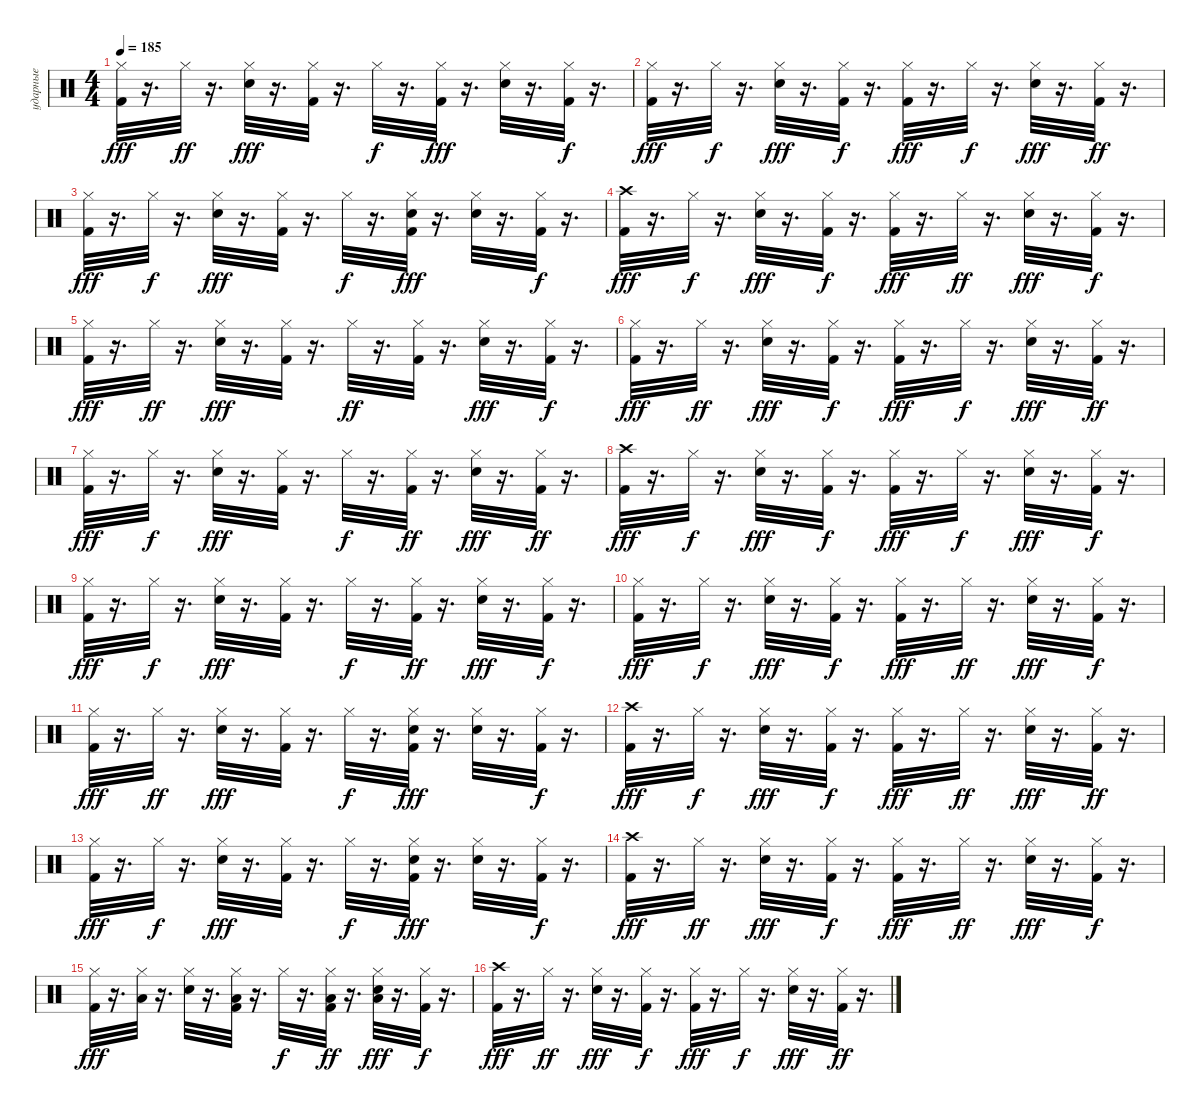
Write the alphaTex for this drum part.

\track ("ударные" "ударные") {instrument percussion}
\staff {score}
\articulation defaults
\ts (4 4)
\tempo 185
\clef neutral
\ks c
("Hi-Hat (closed)" "Kick (hit) 2").32{dy fff} r.16{d} "Hi-Hat (closed)".32{dy ff} r.16{d} ("Hi-Hat (closed)" "Electric Snare (hit)").32{dy fff} r.16{d} ("Hi-Hat (closed)" "Kick (hit) 2").32 r.16{d} "Hi-Hat (closed)".32{dy f} r.16{d} ("Kick (hit) 2" "Hi-Hat (closed)").32{dy fff} r.16{d} ("Hi-Hat (closed)" "Electric Snare (hit)").32 r.16{d} ("Hi-Hat (closed)" "Kick (hit) 2").32{dy f} r.16{d} |
("Hi-Hat (closed)" "Kick (hit) 2").32{dy fff} r.16{d} "Hi-Hat (closed)".32{dy f} r.16{d} ("Hi-Hat (closed)" "Electric Snare (hit)").32{dy fff} r.16{d} ("Hi-Hat (closed)" "Kick (hit) 2").32{dy f} r.16{d} ("Hi-Hat (closed)" "Kick (hit) 2").32{dy fff} r.16{d} "Hi-Hat (closed)".32{dy f} r.16{d} ("Hi-Hat (closed)" "Electric Snare (hit)").32{dy fff} r.16{d} ("Hi-Hat (closed)" "Kick (hit) 2").32{dy ff} r.16{d} |
("Hi-Hat (closed)" "Kick (hit) 2").32{dy fff} r.16{d} "Hi-Hat (closed)".32{dy f} r.16{d} ("Hi-Hat (closed)" "Electric Snare (hit)").32{dy fff} r.16{d} ("Hi-Hat (closed)" "Kick (hit) 2").32 r.16{d} "Hi-Hat (closed)".32{dy f} r.16{d} ("Electric Snare (hit)" "Kick (hit) 2" "Hi-Hat (closed)").32{dy fff} r.16{d} ("Hi-Hat (closed)" "Electric Snare (hit)").32 r.16{d} ("Hi-Hat (closed)" "Kick (hit) 2").32{dy f} r.16{d} |
("Crash high (hit)" "Kick (hit) 2").32{dy fff} r.16{d} "Hi-Hat (closed)".32{dy f} r.16{d} ("Hi-Hat (closed)" "Electric Snare (hit)").32{dy fff} r.16{d} ("Hi-Hat (closed)" "Kick (hit) 2").32{dy f} r.16{d} ("Hi-Hat (closed)" "Kick (hit) 2").32{dy fff} r.16{d} "Hi-Hat (closed)".32{dy ff} r.16{d} ("Hi-Hat (closed)" "Electric Snare (hit)").32{dy fff} r.16{d} ("Hi-Hat (closed)" "Kick (hit) 2").32{dy f} r.16{d} |
("Hi-Hat (closed)" "Kick (hit) 2").32{dy fff} r.16{d} "Hi-Hat (closed)".32{dy ff} r.16{d} ("Hi-Hat (closed)" "Electric Snare (hit)").32{dy fff} r.16{d} ("Hi-Hat (closed)" "Kick (hit) 2").32 r.16{d} "Hi-Hat (closed)".32{dy ff} r.16{d} ("Kick (hit) 2" "Hi-Hat (closed)").32 r.16{d} ("Hi-Hat (closed)" "Electric Snare (hit)").32{dy fff} r.16{d} ("Hi-Hat (closed)" "Kick (hit) 2").32{dy f} r.16{d} |
("Hi-Hat (closed)" "Kick (hit) 2").32{dy fff} r.16{d} "Hi-Hat (closed)".32{dy ff} r.16{d} ("Hi-Hat (closed)" "Electric Snare (hit)").32{dy fff} r.16{d} ("Hi-Hat (closed)" "Kick (hit) 2").32{dy f} r.16{d} ("Hi-Hat (closed)" "Kick (hit) 2").32{dy fff} r.16{d} "Hi-Hat (closed)".32{dy f} r.16{d} ("Hi-Hat (closed)" "Electric Snare (hit)").32{dy fff} r.16{d} ("Hi-Hat (closed)" "Kick (hit) 2").32{dy ff} r.16{d} |
("Hi-Hat (closed)" "Kick (hit) 2").32{dy fff} r.16{d} "Hi-Hat (closed)".32{dy f} r.16{d} ("Hi-Hat (closed)" "Electric Snare (hit)").32{dy fff} r.16{d} ("Hi-Hat (closed)" "Kick (hit) 2").32 r.16{d} "Hi-Hat (closed)".32{dy f} r.16{d} ("Kick (hit) 2" "Hi-Hat (closed)").32{dy ff} r.16{d} ("Hi-Hat (closed)" "Electric Snare (hit)").32{dy fff} r.16{d} ("Hi-Hat (closed)" "Kick (hit) 2").32{dy ff} r.16{d} |
("Crash high (hit)" "Kick (hit) 2").32{dy fff} r.16{d} "Hi-Hat (closed)".32{dy f} r.16{d} ("Hi-Hat (closed)" "Electric Snare (hit)").32{dy fff} r.16{d} ("Hi-Hat (closed)" "Kick (hit) 2").32{dy f} r.16{d} ("Hi-Hat (closed)" "Kick (hit) 2").32{dy fff} r.16{d} "Hi-Hat (closed)".32{dy f} r.16{d} ("Hi-Hat (closed)" "Electric Snare (hit)").32{dy fff} r.16{d} ("Hi-Hat (closed)" "Kick (hit) 2").32{dy f} r.16{d} |
("Hi-Hat (closed)" "Kick (hit) 2").32{dy fff} r.16{d} "Hi-Hat (closed)".32{dy f} r.16{d} ("Hi-Hat (closed)" "Electric Snare (hit)").32{dy fff} r.16{d} ("Hi-Hat (closed)" "Kick (hit) 2").32 r.16{d} "Hi-Hat (closed)".32{dy f} r.16{d} ("Kick (hit) 2" "Hi-Hat (closed)").32{dy ff} r.16{d} ("Hi-Hat (closed)" "Electric Snare (hit)").32{dy fff} r.16{d} ("Hi-Hat (closed)" "Kick (hit) 2").32{dy f} r.16{d} |
("Hi-Hat (closed)" "Kick (hit) 2").32{dy fff} r.16{d} "Hi-Hat (closed)".32{dy f} r.16{d} ("Hi-Hat (closed)" "Electric Snare (hit)").32{dy fff} r.16{d} ("Hi-Hat (closed)" "Kick (hit) 2").32{dy f} r.16{d} ("Hi-Hat (closed)" "Kick (hit) 2").32{dy fff} r.16{d} "Hi-Hat (closed)".32{dy ff} r.16{d} ("Hi-Hat (closed)" "Electric Snare (hit)").32{dy fff} r.16{d} ("Hi-Hat (closed)" "Kick (hit) 2").32{dy f} r.16{d} |
("Hi-Hat (closed)" "Kick (hit) 2").32{dy fff} r.16{d} "Hi-Hat (closed)".32{dy ff} r.16{d} ("Hi-Hat (closed)" "Electric Snare (hit)").32{dy fff} r.16{d} ("Hi-Hat (closed)" "Kick (hit) 2").32 r.16{d} "Hi-Hat (closed)".32{dy f} r.16{d} ("Electric Snare (hit)" "Kick (hit) 2" "Hi-Hat (closed)").32{dy fff} r.16{d} ("Hi-Hat (closed)" "Electric Snare (hit)").32 r.16{d} ("Hi-Hat (closed)" "Kick (hit) 2").32{dy f} r.16{d} |
("Crash high (hit)" "Kick (hit) 2").32{dy fff} r.16{d} "Hi-Hat (closed)".32{dy f} r.16{d} ("Hi-Hat (closed)" "Electric Snare (hit)").32{dy fff} r.16{d} ("Hi-Hat (closed)" "Kick (hit) 2").32{dy f} r.16{d} ("Hi-Hat (closed)" "Kick (hit) 2").32{dy fff} r.16{d} "Hi-Hat (closed)".32{dy ff} r.16{d} ("Hi-Hat (closed)" "Electric Snare (hit)").32{dy fff} r.16{d} ("Hi-Hat (closed)" "Kick (hit) 2").32{dy ff} r.16{d} |
("Hi-Hat (closed)" "Kick (hit) 2").32{dy fff} r.16{d} "Hi-Hat (closed)".32{dy f} r.16{d} ("Hi-Hat (closed)" "Electric Snare (hit)").32{dy fff} r.16{d} ("Hi-Hat (closed)" "Kick (hit) 2").32 r.16{d} "Hi-Hat (closed)".32{dy f} r.16{d} ("Electric Snare (hit)" "Kick (hit) 2" "Hi-Hat (closed)").32{dy fff} r.16{d} ("Hi-Hat (closed)" "Electric Snare (hit)").32 r.16{d} ("Hi-Hat (closed)" "Kick (hit) 2").32{dy f} r.16{d} |
("Crash high (hit)" "Kick (hit) 2").32{dy fff} r.16{d} "Hi-Hat (closed)".32{dy ff} r.16{d} ("Hi-Hat (closed)" "Electric Snare (hit)").32{dy fff} r.16{d} ("Hi-Hat (closed)" "Kick (hit) 2").32{dy f} r.16{d} ("Hi-Hat (closed)" "Kick (hit) 2").32{dy fff} r.16{d} "Hi-Hat (closed)".32{dy ff} r.16{d} ("Hi-Hat (closed)" "Electric Snare (hit)").32{dy fff} r.16{d} ("Hi-Hat (closed)" "Kick (hit) 2").32{dy f} r.16{d} |
("Hi-Hat (closed)" "Kick (hit) 2").32{dy fff} r.16{d} ("Low Floor Tom (hit)" "Hi-Hat (closed)").32 r.16{d} ("Hi-Hat (closed)" "Electric Snare (hit)").32 r.16{d} ("Low Floor Tom (hit)" "Hi-Hat (closed)" "Kick (hit) 2").32 r.16{d} "Hi-Hat (closed)".32{dy f} r.16{d} ("Low Floor Tom (hit)" "Kick (hit) 2" "Hi-Hat (closed)").32{dy ff} r.16{d} ("Low Floor Tom (hit)" "Hi-Hat (closed)" "Electric Snare (hit)").32{dy fff} r.16{d} ("Hi-Hat (closed)" "Kick (hit) 2").32{dy f} r.16{d} |
("Crash high (hit)" "Kick (hit) 2").32{dy fff} r.16{d} "Hi-Hat (closed)".32{dy ff} r.16{d} ("Hi-Hat (closed)" "Electric Snare (hit)").32{dy fff} r.16{d} ("Hi-Hat (closed)" "Kick (hit) 2").32{dy f} r.16{d} ("Hi-Hat (closed)" "Kick (hit) 2").32{dy fff} r.16{d} "Hi-Hat (closed)".32{dy f} r.16{d} ("Hi-Hat (closed)" "Electric Snare (hit)").32{dy fff} r.16{d} ("Hi-Hat (closed)" "Kick (hit) 2").32{dy ff} r.16{d}
